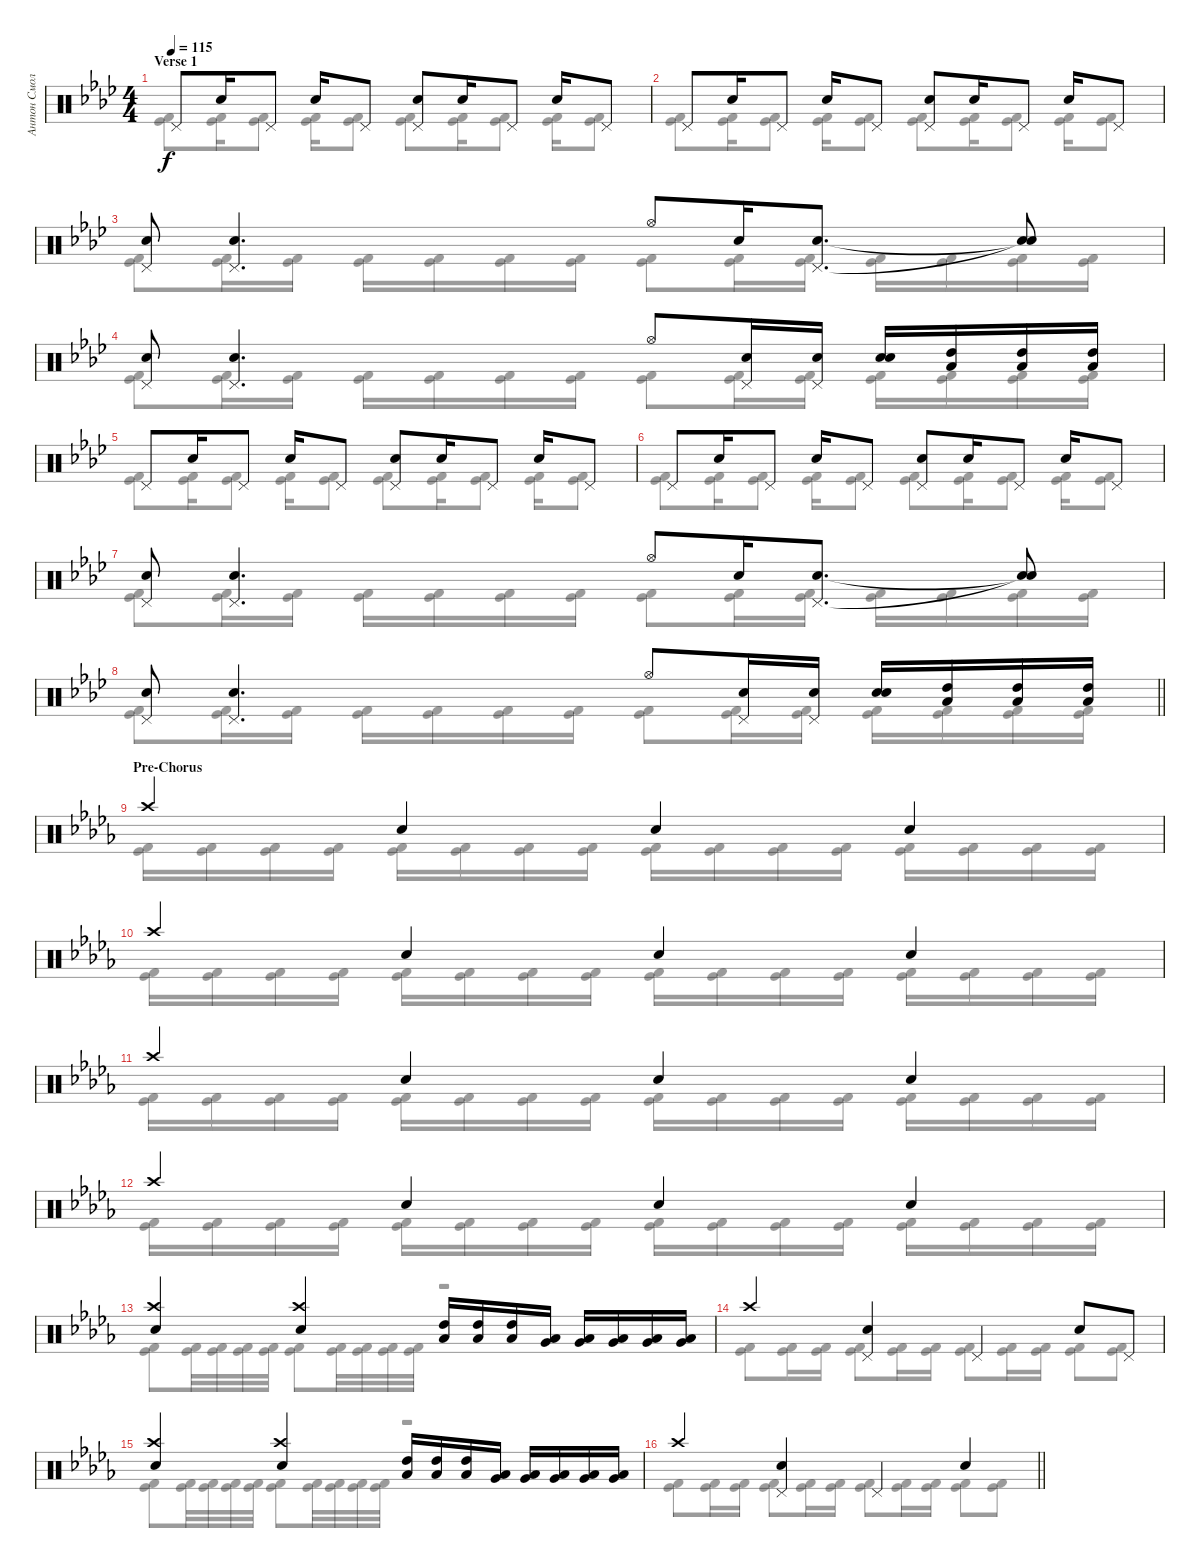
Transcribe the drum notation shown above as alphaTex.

\track ("Антон Смольянин" "Антон Смол") {instrument percussion}
\staff {score}
\articulation defaults
\voice
\ts (4 4)
\section ("" "Verse 1")
\tempo 115
\clef neutral
\ks ab "Pedal Hi-Hat (hit)".8{dy f} "Snare (hit) 2".16 "Pedal Hi-Hat (hit)".8 "Snare (hit) 2".16 "Pedal Hi-Hat (hit)".8
("Snare (hit) 2" "Pedal Hi-Hat (hit)").8 "Snare (hit) 2".16 "Pedal Hi-Hat (hit)".8 "Snare (hit) 2".16 "Pedal Hi-Hat (hit)".8 |
"Pedal Hi-Hat (hit)".8 "Snare (hit) 2".16 "Pedal Hi-Hat (hit)".8 "Snare (hit) 2".16 "Pedal Hi-Hat (hit)".8 ("Snare (hit) 2" "Pedal Hi-Hat (hit)").8 "Snare (hit) 2".16 "Pedal Hi-Hat (hit)".8 "Snare (hit) 2".16 "Pedal Hi-Hat (hit)".8 |
("Snare (hit) 2" "Pedal Hi-Hat (hit)").8 ("Snare (hit) 2" "Pedal Hi-Hat (hit)").4{d} "Hi-Hat (open)".8 "Snare (hit) 2".16 ("Snare (hit) 2" "Pedal Hi-Hat (hit)").8{d} ("Snare (hit)"{t} "Snare (hit)"{t}).8 |
("Snare (hit) 2" "Pedal Hi-Hat (hit)").8 ("Snare (hit) 2" "Pedal Hi-Hat (hit)").4{d} "Hi-Hat (open)".8 ("Snare (hit) 2" "Pedal Hi-Hat (hit)").16 ("Snare (hit) 2" "Pedal Hi-Hat (hit)").16 ("Snare (hit) 2" "Snare (hit) 2").16 ("Low Tom (hit)" "High Tom (hit)").16 ("Low Tom (hit)" "High Tom (hit)").16 ("Low Tom (hit)" "High Tom (hit)").16 |
"Pedal Hi-Hat (hit)".8 "Snare (hit) 2".16 "Pedal Hi-Hat (hit)".8 "Snare (hit) 2".16 "Pedal Hi-Hat (hit)".8 ("Snare (hit) 2" "Pedal Hi-Hat (hit)").8 "Snare (hit) 2".16 "Pedal Hi-Hat (hit)".8 "Snare (hit) 2".16 "Pedal Hi-Hat (hit)".8 |
"Pedal Hi-Hat (hit)".8 "Snare (hit) 2".16 "Pedal Hi-Hat (hit)".8 "Snare (hit) 2".16 "Pedal Hi-Hat (hit)".8 ("Snare (hit) 2" "Pedal Hi-Hat (hit)").8 "Snare (hit) 2".16 "Pedal Hi-Hat (hit)".8 "Snare (hit) 2".16 "Pedal Hi-Hat (hit)".8 |
("Snare (hit) 2" "Pedal Hi-Hat (hit)").8 ("Snare (hit) 2" "Pedal Hi-Hat (hit)").4{d} "Hi-Hat (open)".8 "Snare (hit) 2".16 ("Snare (hit) 2" "Pedal Hi-Hat (hit)").8{d} ("Snare (hit)"{t} "Snare (hit)"{t}).8 |
\barLineRight lightlight
("Snare (hit) 2" "Pedal Hi-Hat (hit)").8 ("Snare (hit) 2" "Pedal Hi-Hat (hit)").4{d} "Hi-Hat (open)".8 ("Snare (hit) 2" "Pedal Hi-Hat (hit)").16 ("Snare (hit) 2" "Pedal Hi-Hat (hit)").16 ("Snare (hit) 2" "Snare (hit) 2").16 ("Low Tom (hit)" "High Tom (hit)").16 ("Low Tom (hit)" "High Tom (hit)").16 ("Low Tom (hit)" "High Tom (hit)").16 |
\section ("" "Pre-Chorus")
\ks db "Crash high (hit)".4 "Electric Snare (hit)".4 "Electric Snare (hit)".4 "Electric Snare (hit)".4
|
"Crash high (hit)".4 "Electric Snare (hit)".4 "Electric Snare (hit)".4 "Electric Snare (hit)".4 |
"Crash high (hit)".4 "Electric Snare (hit)".4 "Electric Snare (hit)".4 "Electric Snare (hit)".4 |
"Crash high (hit)".4 "Electric Snare (hit)".4 "Electric Snare (hit)".4 "Electric Snare (hit)".4 |
("Electric Snare (hit)" "Crash high (hit)").4 ("Electric Snare (hit)" "Crash high (hit)").4 ("High Tom (hit)" "Low Tom (hit)").16 ("High Tom (hit)" "Low Tom (hit)").16 ("High Tom (hit)" "Low Tom (hit)").16 ("Low Tom (hit)" "Very Low Tom (hit)").16 ("Low Tom (hit)" "Very Low Tom (hit)").16 ("Low Tom (hit)" "Very Low Tom (hit)").16 ("Low Tom (hit)" "Very Low Tom (hit)").16 ("Low Tom (hit)" "Very Low Tom (hit)").16 |
"Crash high (hit)".4 ("Electric Snare (hit)" "Pedal Hi-Hat (hit)").4 "Pedal Hi-Hat (hit)".4 "Electric Snare (hit)".8 "Pedal Hi-Hat (hit)".8 |
("Electric Snare (hit)" "Crash high (hit)").4 ("Electric Snare (hit)" "Crash high (hit)").4 ("High Tom (hit)" "Low Tom (hit)").16 ("High Tom (hit)" "Low Tom (hit)").16 ("High Tom (hit)" "Low Tom (hit)").16 ("Low Tom (hit)" "Very Low Tom (hit)").16 ("Low Tom (hit)" "Very Low Tom (hit)").16 ("Low Tom (hit)" "Very Low Tom (hit)").16 ("Low Tom (hit)" "Very Low Tom (hit)").16 ("Low Tom (hit)" "Very Low Tom (hit)").16 |
\barLineRight lightlight "Crash high (hit)".4
("Electric Snare (hit)" "Pedal Hi-Hat (hit)").4 "Pedal Hi-Hat (hit)".4 "Electric Snare (hit)".4
\voice
\clef neutral
\ottava regular
\simile none
\ks ab
("Kick (hit) 2" "Kick (hit)").8{dy f} ("Kick (hit) 2" "Kick (hit)").16 ("Kick (hit) 2" "Kick (hit)").8 ("Kick (hit) 2" "Kick (hit)").16 ("Kick (hit) 2" "Kick (hit)").8 ("Kick (hit) 2" "Kick (hit)").8 ("Kick (hit) 2" "Kick (hit)").16 ("Kick (hit) 2" "Kick (hit)").8 ("Kick (hit) 2" "Kick (hit)").16 ("Kick (hit) 2" "Kick (hit)").8 |
("Kick (hit) 2" "Kick (hit)").8 ("Kick (hit) 2" "Kick (hit)").16 ("Kick (hit) 2" "Kick (hit)").8 ("Kick (hit) 2" "Kick (hit)").16 ("Kick (hit) 2" "Kick (hit)").8 ("Kick (hit) 2" "Kick (hit)").8 ("Kick (hit) 2" "Kick (hit)").16 ("Kick (hit) 2" "Kick (hit)").8 ("Kick (hit) 2" "Kick (hit)").16 ("Kick (hit) 2" "Kick (hit)").8 |
("Kick (hit) 2" "Kick (hit)").8 ("Kick (hit) 2" "Kick (hit)").16 ("Kick (hit) 2" "Kick (hit)").16 ("Kick (hit) 2" "Kick (hit)").16 ("Kick (hit) 2" "Kick (hit)").16 ("Kick (hit) 2" "Kick (hit)").16 ("Kick (hit) 2" "Kick (hit)").16 ("Kick (hit) 2" "Kick (hit)").8 ("Kick (hit) 2" "Kick (hit)").16 ("Kick (hit) 2" "Kick (hit)").16 ("Kick (hit) 2" "Kick (hit)").16 ("Kick (hit) 2" "Kick (hit)").16 ("Kick (hit) 2" "Kick (hit)").16 ("Kick (hit) 2" "Kick (hit)").16 |
("Kick (hit) 2" "Kick (hit)").8 ("Kick (hit) 2" "Kick (hit)").16 ("Kick (hit) 2" "Kick (hit)").16 ("Kick (hit) 2" "Kick (hit)").16 ("Kick (hit) 2" "Kick (hit)").16 ("Kick (hit) 2" "Kick (hit)").16 ("Kick (hit) 2" "Kick (hit)").16 ("Kick (hit) 2" "Kick (hit)").8 ("Kick (hit) 2" "Kick (hit)").16 ("Kick (hit) 2" "Kick (hit)").16 ("Kick (hit) 2" "Kick (hit)").16 ("Kick (hit) 2" "Kick (hit)").16 ("Kick (hit) 2" "Kick (hit)").16 ("Kick (hit) 2" "Kick (hit)").16 |
("Kick (hit) 2" "Kick (hit)").8 ("Kick (hit) 2" "Kick (hit)").16 ("Kick (hit) 2" "Kick (hit)").8 ("Kick (hit) 2" "Kick (hit)").16 ("Kick (hit) 2" "Kick (hit)").8 ("Kick (hit) 2" "Kick (hit)").8 ("Kick (hit) 2" "Kick (hit)").16 ("Kick (hit) 2" "Kick (hit)").8 ("Kick (hit) 2" "Kick (hit)").16 ("Kick (hit) 2" "Kick (hit)").8 |
("Kick (hit) 2" "Kick (hit)").8 ("Kick (hit) 2" "Kick (hit)").16 ("Kick (hit) 2" "Kick (hit)").8 ("Kick (hit) 2" "Kick (hit)").16 ("Kick (hit) 2" "Kick (hit)").8 ("Kick (hit) 2" "Kick (hit)").8 ("Kick (hit) 2" "Kick (hit)").16 ("Kick (hit) 2" "Kick (hit)").8 ("Kick (hit) 2" "Kick (hit)").16 ("Kick (hit) 2" "Kick (hit)").8 |
("Kick (hit) 2" "Kick (hit)").8 ("Kick (hit) 2" "Kick (hit)").16 ("Kick (hit) 2" "Kick (hit)").16 ("Kick (hit) 2" "Kick (hit)").16 ("Kick (hit) 2" "Kick (hit)").16 ("Kick (hit) 2" "Kick (hit)").16 ("Kick (hit) 2" "Kick (hit)").16 ("Kick (hit) 2" "Kick (hit)").8 ("Kick (hit) 2" "Kick (hit)").16 ("Kick (hit) 2" "Kick (hit)").16 ("Kick (hit) 2" "Kick (hit)").16 ("Kick (hit) 2" "Kick (hit)").16 ("Kick (hit) 2" "Kick (hit)").16 ("Kick (hit) 2" "Kick (hit)").16 |
\barLineRight lightlight
("Kick (hit) 2" "Kick (hit)").8 ("Kick (hit) 2" "Kick (hit)").16 ("Kick (hit) 2" "Kick (hit)").16 ("Kick (hit) 2" "Kick (hit)").16 ("Kick (hit) 2" "Kick (hit)").16 ("Kick (hit) 2" "Kick (hit)").16 ("Kick (hit) 2" "Kick (hit)").16 ("Kick (hit) 2" "Kick (hit)").8 ("Kick (hit) 2" "Kick (hit)").16 ("Kick (hit) 2" "Kick (hit)").16 ("Kick (hit) 2" "Kick (hit)").16 ("Kick (hit) 2" "Kick (hit)").16 ("Kick (hit) 2" "Kick (hit)").16 ("Kick (hit) 2" "Kick (hit)").16 |
\ks db
("Kick (hit) 2" "Kick (hit)").16 ("Kick (hit) 2" "Kick (hit)").16 ("Kick (hit) 2" "Kick (hit)").16 ("Kick (hit) 2" "Kick (hit)").16 ("Kick (hit) 2" "Kick (hit)").16 ("Kick (hit) 2" "Kick (hit)").16 ("Kick (hit) 2" "Kick (hit)").16 ("Kick (hit) 2" "Kick (hit)").16 ("Kick (hit) 2" "Kick (hit)").16 ("Kick (hit) 2" "Kick (hit)").16 ("Kick (hit) 2" "Kick (hit)").16 ("Kick (hit) 2" "Kick (hit)").16 ("Kick (hit) 2" "Kick (hit)").16 ("Kick (hit) 2" "Kick (hit)").16 ("Kick (hit) 2" "Kick (hit)").16 ("Kick (hit) 2" "Kick (hit)").16 |
("Kick (hit) 2" "Kick (hit)").16 ("Kick (hit) 2" "Kick (hit)").16 ("Kick (hit) 2" "Kick (hit)").16 ("Kick (hit) 2" "Kick (hit)").16 ("Kick (hit) 2" "Kick (hit)").16 ("Kick (hit) 2" "Kick (hit)").16 ("Kick (hit) 2" "Kick (hit)").16 ("Kick (hit) 2" "Kick (hit)").16 ("Kick (hit) 2" "Kick (hit)").16 ("Kick (hit) 2" "Kick (hit)").16 ("Kick (hit) 2" "Kick (hit)").16 ("Kick (hit) 2" "Kick (hit)").16 ("Kick (hit) 2" "Kick (hit)").16 ("Kick (hit) 2" "Kick (hit)").16 ("Kick (hit) 2" "Kick (hit)").16 ("Kick (hit) 2" "Kick (hit)").16 |
("Kick (hit) 2" "Kick (hit)").16 ("Kick (hit) 2" "Kick (hit)").16 ("Kick (hit) 2" "Kick (hit)").16 ("Kick (hit) 2" "Kick (hit)").16 ("Kick (hit) 2" "Kick (hit)").16 ("Kick (hit) 2" "Kick (hit)").16 ("Kick (hit) 2" "Kick (hit)").16 ("Kick (hit) 2" "Kick (hit)").16 ("Kick (hit) 2" "Kick (hit)").16 ("Kick (hit) 2" "Kick (hit)").16 ("Kick (hit) 2" "Kick (hit)").16 ("Kick (hit) 2" "Kick (hit)").16 ("Kick (hit) 2" "Kick (hit)").16 ("Kick (hit) 2" "Kick (hit)").16 ("Kick (hit) 2" "Kick (hit)").16 ("Kick (hit) 2" "Kick (hit)").16 |
("Kick (hit) 2" "Kick (hit)").16 ("Kick (hit) 2" "Kick (hit)").16 ("Kick (hit) 2" "Kick (hit)").16 ("Kick (hit) 2" "Kick (hit)").16 ("Kick (hit) 2" "Kick (hit)").16 ("Kick (hit) 2" "Kick (hit)").16 ("Kick (hit) 2" "Kick (hit)").16 ("Kick (hit) 2" "Kick (hit)").16 ("Kick (hit) 2" "Kick (hit)").16 ("Kick (hit) 2" "Kick (hit)").16 ("Kick (hit) 2" "Kick (hit)").16 ("Kick (hit) 2" "Kick (hit)").16 ("Kick (hit) 2" "Kick (hit)").16 ("Kick (hit) 2" "Kick (hit)").16 ("Kick (hit) 2" "Kick (hit)").16 ("Kick (hit) 2" "Kick (hit)").16 |
("Kick (hit) 2" "Kick (hit)").8 ("Kick (hit) 2" "Kick (hit)").32 ("Kick (hit) 2" "Kick (hit)").32 ("Kick (hit) 2" "Kick (hit)").32 ("Kick (hit) 2" "Kick (hit)").32 ("Kick (hit) 2" "Kick (hit)").8 ("Kick (hit) 2" "Kick (hit)").32 ("Kick (hit) 2" "Kick (hit)").32 ("Kick (hit) 2" "Kick (hit)").32 ("Kick (hit) 2" "Kick (hit)").32 r.2 |
("Kick (hit) 2" "Kick (hit)").8 ("Kick (hit) 2" "Kick (hit)").16 ("Kick (hit) 2" "Kick (hit)").16 ("Kick (hit) 2" "Kick (hit)").8 ("Kick (hit) 2" "Kick (hit)").16 ("Kick (hit) 2" "Kick (hit)").16 ("Kick (hit) 2" "Kick (hit)").8 ("Kick (hit) 2" "Kick (hit)").16 ("Kick (hit) 2" "Kick (hit)").16 ("Kick (hit) 2" "Kick (hit)").8 ("Kick (hit) 2" "Kick (hit)").8 |
("Kick (hit) 2" "Kick (hit)").8 ("Kick (hit) 2" "Kick (hit)").32 ("Kick (hit) 2" "Kick (hit)").32 ("Kick (hit) 2" "Kick (hit)").32 ("Kick (hit) 2" "Kick (hit)").32 ("Kick (hit) 2" "Kick (hit)").8 ("Kick (hit) 2" "Kick (hit)").32 ("Kick (hit) 2" "Kick (hit)").32 ("Kick (hit) 2" "Kick (hit)").32 ("Kick (hit) 2" "Kick (hit)").32 r.2 |
\barLineRight lightlight
("Kick (hit) 2" "Kick (hit)").8 ("Kick (hit) 2" "Kick (hit)").16 ("Kick (hit) 2" "Kick (hit)").16 ("Kick (hit) 2" "Kick (hit)").8 ("Kick (hit) 2" "Kick (hit)").16 ("Kick (hit) 2" "Kick (hit)").16 ("Kick (hit) 2" "Kick (hit)").8 ("Kick (hit) 2" "Kick (hit)").16 ("Kick (hit) 2" "Kick (hit)").16 ("Kick (hit) 2" "Kick (hit)").8 ("Kick (hit) 2" "Kick (hit)").8
